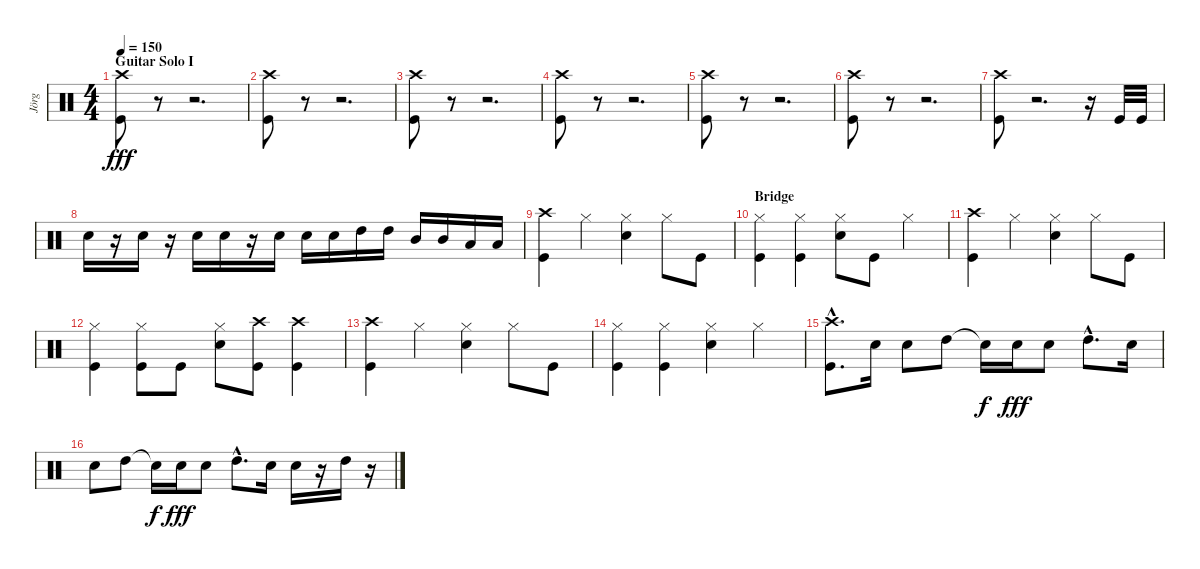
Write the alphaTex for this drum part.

\track ("Jörg" "Jörg") {instrument percussion}
\staff {score}
\articulation defaults
\ts (4 4)
\section ("" "Guitar Solo I")
\tempo 150
\clef neutral
\ks c
("Crash high (hit)" "Kick (hit)").8{dy fff} r.8 r.2{d} |
("Crash high (hit)" "Kick (hit)").8{volume 16} r.8 r.2{d} |
("Crash high (hit)" "Kick (hit)").8 r.8 r.2{d} |
("Crash high (hit)" "Kick (hit)").8{volume 16} r.8 r.2{d} |
("Crash high (hit)" "Kick (hit)").8 r.8 r.2{d} |
("Crash high (hit)" "Kick (hit)").8{volume 16} r.8 r.2{d} |
("Crash high (hit)" "Kick (hit)").8 r.2{d} r.16 "Kick (hit)".32{volume 16} "Kick (hit)".32 |
"Snare (hit) 2".16 r.16 "Snare (hit) 2".16 r.16 "Snare (hit) 2".16 "Snare (hit) 2".16 r.16 "Snare (hit) 2".16 "Snare (hit) 2".16 "Snare (hit) 2".16 "High Tom (hit)".16 "High Tom (hit)".16 "Mid Tom (hit)".16 "Mid Tom (hit)".16 "Low Tom (hit)".16 "Low Tom (hit)".16 |
("Crash high (hit)" "Kick (hit)").4 "Hi-Hat (closed)".4 ("Snare (hit) 2" "Hi-Hat (closed)").4 "Hi-Hat (closed)".8 "Kick (hit)".8 |
\section ("" "Bridge")
("Hi-Hat (closed)" "Kick (hit)").4 ("Hi-Hat (closed)" "Kick (hit)").4 ("Snare (hit) 2" "Hi-Hat (closed)").8 "Kick (hit)".8 "Hi-Hat (closed)".4 |
("Crash high (hit)" "Kick (hit)").4 "Hi-Hat (closed)".4 ("Snare (hit) 2" "Hi-Hat (closed)").4 "Hi-Hat (closed)".8 "Kick (hit)".8 |
("Hi-Hat (closed)" "Kick (hit)").4 ("Hi-Hat (closed)" "Kick (hit)").8 "Kick (hit)".8 ("Snare (hit) 2" "Hi-Hat (closed)").8 ("Crash high (hit)" "Kick (hit)").8 ("Crash high (hit)" "Kick (hit)").4 |
("Crash high (hit)" "Kick (hit)").4 "Hi-Hat (closed)".4 ("Snare (hit) 2" "Hi-Hat (closed)").4 "Hi-Hat (closed)".8 "Kick (hit)".8 |
("Hi-Hat (closed)" "Kick (hit)").4 ("Hi-Hat (closed)" "Kick (hit)").4 ("Snare (hit) 2" "Hi-Hat (closed)").4 "Hi-Hat (closed)".4 |
("Crash high (hit)"{hac} "Kick (hit)"{hac}).8{d} "Snare (hit) 2".16 "Snare (hit) 2".8 "High Tom (hit)".8 "Snare (hit)"{t}.16{dy f} "Snare (hit) 2".16{dy fff} "Snare (hit) 2".8 "High Tom (hit)"{hac}.8{d} "Snare (hit) 2".16 |
"Snare (hit) 2".8 "High Tom (hit)".8 "Snare (hit)"{t}.16{dy f} "Snare (hit) 2".16{dy fff} "Snare (hit) 2".8 "High Tom (hit)"{hac}.8{d} "Snare (hit) 2".16 "Snare (hit) 2".16 r.16 "High Tom (hit)".16 r.16
